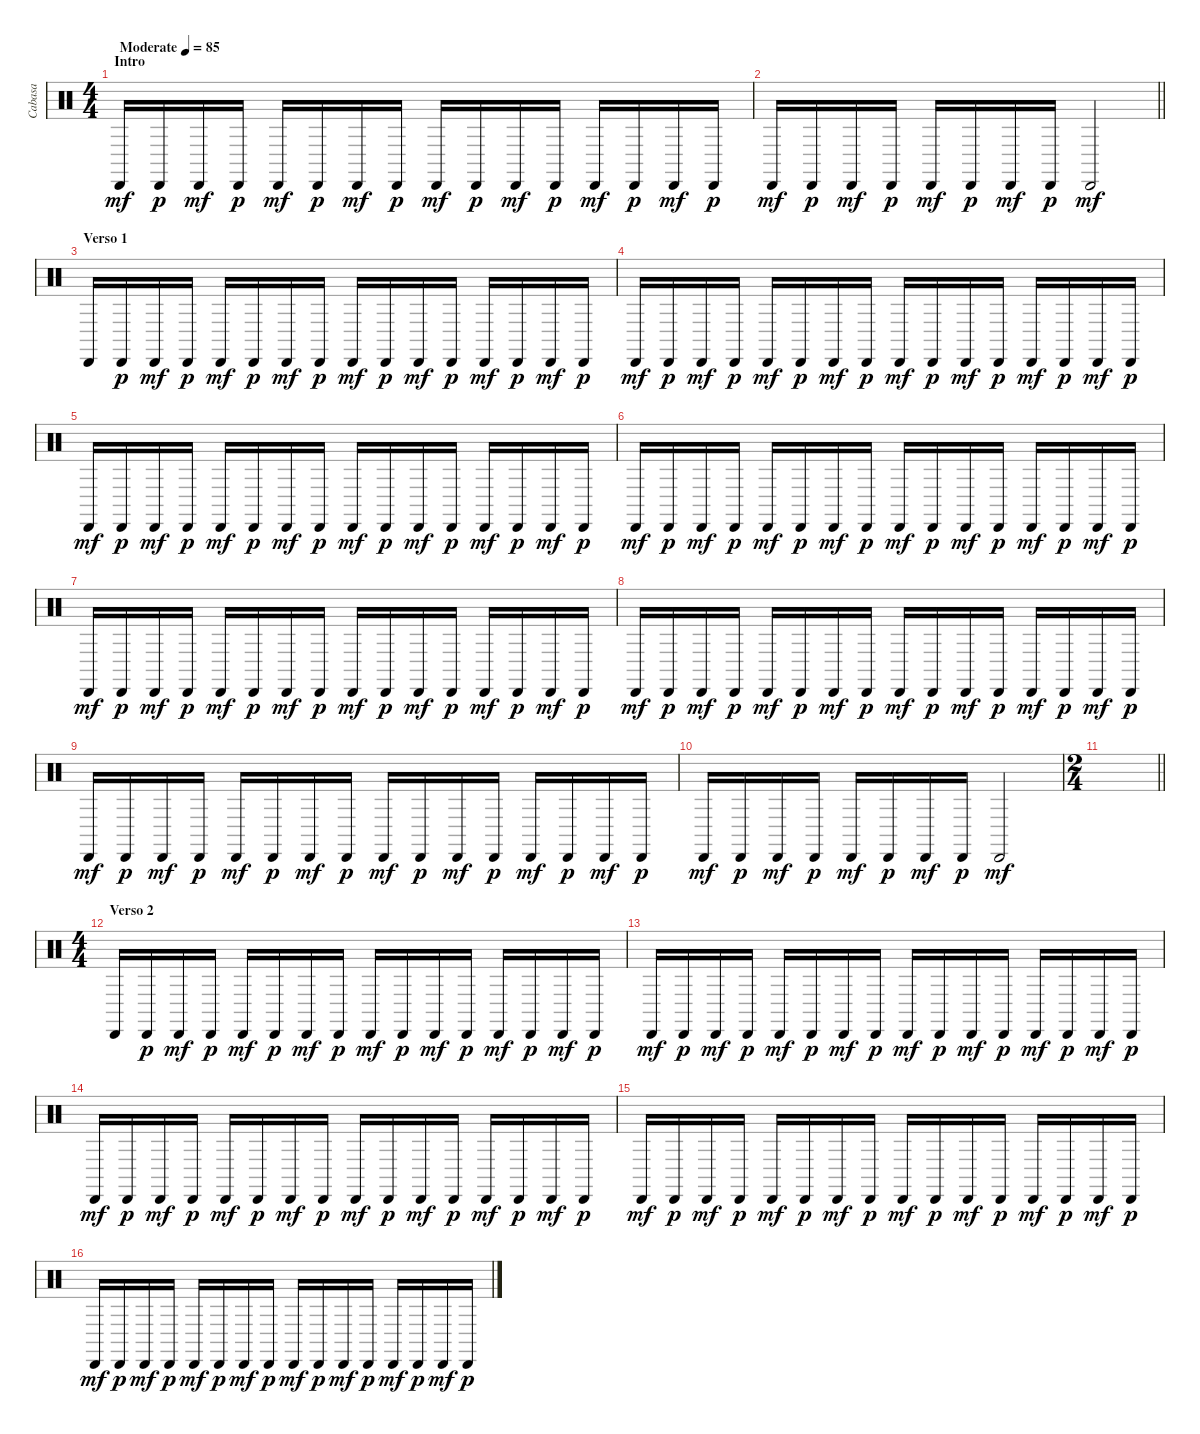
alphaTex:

\track ("Cabasa" "Cabasa") {instrument percussion}
\staff {score}
\articulation defaults
\ts (4 4)
\section ("" "Intro")
\tempo (85 "Moderate")
\clef neutral
\ks c "Cabasa (hit)".16{dy mf} "Cabasa (hit)".16{dy p} "Cabasa (hit)".16{dy mf} "Cabasa (hit)".16{dy p} "Cabasa (hit)".16{dy mf} "Cabasa (hit)".16{dy p} "Cabasa (hit)".16{dy mf} "Cabasa (hit)".16{dy p} "Cabasa (hit)".16{dy mf} "Cabasa (hit)".16{dy p} "Cabasa (hit)".16{dy mf} "Cabasa (hit)".16{dy p} "Cabasa (hit)".16{dy mf} "Cabasa (hit)".16{dy p} "Cabasa (hit)".16{dy mf} "Cabasa (hit)".16{dy p}
|
\barLineRight lightlight "Cabasa (hit)".16{dy mf} "Cabasa (hit)".16{dy p} "Cabasa (hit)".16{dy mf} "Cabasa (hit)".16{dy p} "Cabasa (hit)".16{dy mf} "Cabasa (hit)".16{dy p} "Cabasa (hit)".16{dy mf} "Cabasa (hit)".16{dy p} "Cabasa (hit)".2{dy mf}
|
\section ("" "Verso 1")
"Cabasa (hit)".16 "Cabasa (hit)".16{dy p} "Cabasa (hit)".16{dy mf} "Cabasa (hit)".16{dy p} "Cabasa (hit)".16{dy mf} "Cabasa (hit)".16{dy p} "Cabasa (hit)".16{dy mf} "Cabasa (hit)".16{dy p} "Cabasa (hit)".16{dy mf} "Cabasa (hit)".16{dy p} "Cabasa (hit)".16{dy mf} "Cabasa (hit)".16{dy p} "Cabasa (hit)".16{dy mf} "Cabasa (hit)".16{dy p} "Cabasa (hit)".16{dy mf} "Cabasa (hit)".16{dy p} |
"Cabasa (hit)".16{dy mf} "Cabasa (hit)".16{dy p} "Cabasa (hit)".16{dy mf} "Cabasa (hit)".16{dy p} "Cabasa (hit)".16{dy mf} "Cabasa (hit)".16{dy p} "Cabasa (hit)".16{dy mf} "Cabasa (hit)".16{dy p} "Cabasa (hit)".16{dy mf} "Cabasa (hit)".16{dy p} "Cabasa (hit)".16{dy mf} "Cabasa (hit)".16{dy p} "Cabasa (hit)".16{dy mf} "Cabasa (hit)".16{dy p} "Cabasa (hit)".16{dy mf} "Cabasa (hit)".16{dy p} |
"Cabasa (hit)".16{dy mf} "Cabasa (hit)".16{dy p} "Cabasa (hit)".16{dy mf} "Cabasa (hit)".16{dy p} "Cabasa (hit)".16{dy mf} "Cabasa (hit)".16{dy p} "Cabasa (hit)".16{dy mf} "Cabasa (hit)".16{dy p} "Cabasa (hit)".16{dy mf} "Cabasa (hit)".16{dy p} "Cabasa (hit)".16{dy mf} "Cabasa (hit)".16{dy p} "Cabasa (hit)".16{dy mf} "Cabasa (hit)".16{dy p} "Cabasa (hit)".16{dy mf} "Cabasa (hit)".16{dy p} |
"Cabasa (hit)".16{dy mf} "Cabasa (hit)".16{dy p} "Cabasa (hit)".16{dy mf} "Cabasa (hit)".16{dy p} "Cabasa (hit)".16{dy mf} "Cabasa (hit)".16{dy p} "Cabasa (hit)".16{dy mf} "Cabasa (hit)".16{dy p} "Cabasa (hit)".16{dy mf} "Cabasa (hit)".16{dy p} "Cabasa (hit)".16{dy mf} "Cabasa (hit)".16{dy p} "Cabasa (hit)".16{dy mf} "Cabasa (hit)".16{dy p} "Cabasa (hit)".16{dy mf} "Cabasa (hit)".16{dy p} |
"Cabasa (hit)".16{dy mf} "Cabasa (hit)".16{dy p} "Cabasa (hit)".16{dy mf} "Cabasa (hit)".16{dy p} "Cabasa (hit)".16{dy mf} "Cabasa (hit)".16{dy p} "Cabasa (hit)".16{dy mf} "Cabasa (hit)".16{dy p} "Cabasa (hit)".16{dy mf} "Cabasa (hit)".16{dy p} "Cabasa (hit)".16{dy mf} "Cabasa (hit)".16{dy p} "Cabasa (hit)".16{dy mf} "Cabasa (hit)".16{dy p} "Cabasa (hit)".16{dy mf} "Cabasa (hit)".16{dy p} |
"Cabasa (hit)".16{dy mf} "Cabasa (hit)".16{dy p} "Cabasa (hit)".16{dy mf} "Cabasa (hit)".16{dy p} "Cabasa (hit)".16{dy mf} "Cabasa (hit)".16{dy p} "Cabasa (hit)".16{dy mf} "Cabasa (hit)".16{dy p} "Cabasa (hit)".16{dy mf} "Cabasa (hit)".16{dy p} "Cabasa (hit)".16{dy mf} "Cabasa (hit)".16{dy p} "Cabasa (hit)".16{dy mf} "Cabasa (hit)".16{dy p} "Cabasa (hit)".16{dy mf} "Cabasa (hit)".16{dy p} |
"Cabasa (hit)".16{dy mf} "Cabasa (hit)".16{dy p} "Cabasa (hit)".16{dy mf} "Cabasa (hit)".16{dy p} "Cabasa (hit)".16{dy mf} "Cabasa (hit)".16{dy p} "Cabasa (hit)".16{dy mf} "Cabasa (hit)".16{dy p} "Cabasa (hit)".16{dy mf} "Cabasa (hit)".16{dy p} "Cabasa (hit)".16{dy mf} "Cabasa (hit)".16{dy p} "Cabasa (hit)".16{dy mf} "Cabasa (hit)".16{dy p} "Cabasa (hit)".16{dy mf} "Cabasa (hit)".16{dy p} |
"Cabasa (hit)".16{dy mf} "Cabasa (hit)".16{dy p} "Cabasa (hit)".16{dy mf} "Cabasa (hit)".16{dy p} "Cabasa (hit)".16{dy mf} "Cabasa (hit)".16{dy p} "Cabasa (hit)".16{dy mf} "Cabasa (hit)".16{dy p} "Cabasa (hit)".2{dy mf} |
\ts (2 4)
\barLineRight lightlight
|
\ts (4 4)
\section ("" "Verso 2")
"Cabasa (hit)".16 "Cabasa (hit)".16{dy p} "Cabasa (hit)".16{dy mf} "Cabasa (hit)".16{dy p} "Cabasa (hit)".16{dy mf} "Cabasa (hit)".16{dy p} "Cabasa (hit)".16{dy mf} "Cabasa (hit)".16{dy p} "Cabasa (hit)".16{dy mf} "Cabasa (hit)".16{dy p} "Cabasa (hit)".16{dy mf} "Cabasa (hit)".16{dy p} "Cabasa (hit)".16{dy mf} "Cabasa (hit)".16{dy p} "Cabasa (hit)".16{dy mf} "Cabasa (hit)".16{dy p} |
"Cabasa (hit)".16{dy mf} "Cabasa (hit)".16{dy p} "Cabasa (hit)".16{dy mf} "Cabasa (hit)".16{dy p} "Cabasa (hit)".16{dy mf} "Cabasa (hit)".16{dy p} "Cabasa (hit)".16{dy mf} "Cabasa (hit)".16{dy p} "Cabasa (hit)".16{dy mf} "Cabasa (hit)".16{dy p} "Cabasa (hit)".16{dy mf} "Cabasa (hit)".16{dy p} "Cabasa (hit)".16{dy mf} "Cabasa (hit)".16{dy p} "Cabasa (hit)".16{dy mf} "Cabasa (hit)".16{dy p} |
"Cabasa (hit)".16{dy mf} "Cabasa (hit)".16{dy p} "Cabasa (hit)".16{dy mf} "Cabasa (hit)".16{dy p} "Cabasa (hit)".16{dy mf} "Cabasa (hit)".16{dy p} "Cabasa (hit)".16{dy mf} "Cabasa (hit)".16{dy p} "Cabasa (hit)".16{dy mf} "Cabasa (hit)".16{dy p} "Cabasa (hit)".16{dy mf} "Cabasa (hit)".16{dy p} "Cabasa (hit)".16{dy mf} "Cabasa (hit)".16{dy p} "Cabasa (hit)".16{dy mf} "Cabasa (hit)".16{dy p} |
"Cabasa (hit)".16{dy mf} "Cabasa (hit)".16{dy p} "Cabasa (hit)".16{dy mf} "Cabasa (hit)".16{dy p} "Cabasa (hit)".16{dy mf} "Cabasa (hit)".16{dy p} "Cabasa (hit)".16{dy mf} "Cabasa (hit)".16{dy p} "Cabasa (hit)".16{dy mf} "Cabasa (hit)".16{dy p} "Cabasa (hit)".16{dy mf} "Cabasa (hit)".16{dy p} "Cabasa (hit)".16{dy mf} "Cabasa (hit)".16{dy p} "Cabasa (hit)".16{dy mf} "Cabasa (hit)".16{dy p} |
"Cabasa (hit)".16{dy mf} "Cabasa (hit)".16{dy p} "Cabasa (hit)".16{dy mf} "Cabasa (hit)".16{dy p} "Cabasa (hit)".16{dy mf} "Cabasa (hit)".16{dy p} "Cabasa (hit)".16{dy mf} "Cabasa (hit)".16{dy p} "Cabasa (hit)".16{dy mf} "Cabasa (hit)".16{dy p} "Cabasa (hit)".16{dy mf} "Cabasa (hit)".16{dy p} "Cabasa (hit)".16{dy mf} "Cabasa (hit)".16{dy p} "Cabasa (hit)".16{dy mf} "Cabasa (hit)".16{dy p}
